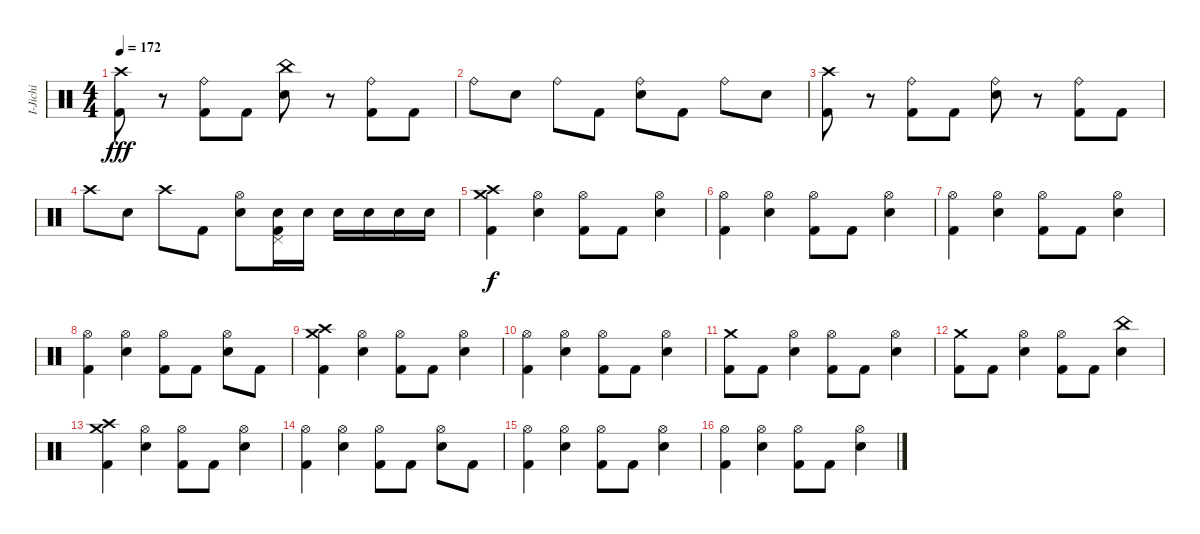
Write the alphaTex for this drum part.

\track ("I-Jichi" "I-Jichi") {instrument percussion}
\staff {score}
\articulation defaults
\ts (4 4)
\tempo 172
\clef neutral
\ks c
("Crash high (hit)" "Kick (hit) 2").8{dy fff} r.8 ("Ride (bell)" "Kick (hit) 2").8 "Kick (hit) 2".8 ("China (hit)" "Electric Snare (hit)").8 r.8 ("Ride (bell)" "Kick (hit) 2").8 "Kick (hit) 2".8 |
"Ride (bell)".8 "Electric Snare (hit)".8 "Ride (bell)".8 "Kick (hit) 2".8 ("Ride (bell)" "Electric Snare (hit)").8 "Kick (hit) 2".8 "Ride (bell)".8 "Electric Snare (hit)".8 |
("Crash high (hit)" "Kick (hit) 2").8 r.8 ("Ride (bell)" "Kick (hit) 2").8 "Kick (hit) 2".8 ("Ride (bell)" "Electric Snare (hit)").8 r.8 ("Ride (bell)" "Kick (hit) 2").8 "Kick (hit) 2".8 |
"Crash high (hit)".8 "Electric Snare (hit)".8 "Crash high (hit)".8 "Kick (hit) 2".8 ("Hi-Hat (open)" "Electric Snare (hit)").8 ("Pedal Hi-Hat (hit)" "Electric Snare (hit)" "Kick (hit) 2").16 "Electric Snare (hit)".16 "Electric Snare (hit)".16 "Electric Snare (hit)".16 "Electric Snare (hit)".16 "Electric Snare (hit)".16 |
("Crash high (hit)" "Crash medium (hit)" "Kick (hit) 2").4{dy f} ("Hi-Hat (open)" "Electric Snare (hit)").4 ("Hi-Hat (open)" "Kick (hit) 2").8 "Kick (hit) 2".8 ("Hi-Hat (open)" "Electric Snare (hit)").4 |
("Hi-Hat (open)" "Kick (hit) 2").4 ("Hi-Hat (open)" "Electric Snare (hit)").4 ("Hi-Hat (open)" "Kick (hit) 2").8 "Kick (hit) 2".8 ("Hi-Hat (open)" "Electric Snare (hit)").4 |
("Hi-Hat (open)" "Kick (hit) 2").4 ("Hi-Hat (open)" "Electric Snare (hit)").4 ("Hi-Hat (open)" "Kick (hit) 2").8 "Kick (hit) 2".8 ("Hi-Hat (open)" "Electric Snare (hit)").4 |
("Hi-Hat (open)" "Kick (hit) 2").4 ("Hi-Hat (open)" "Electric Snare (hit)").4 ("Hi-Hat (open)" "Kick (hit) 2").8 "Kick (hit) 2".8 ("Hi-Hat (open)" "Electric Snare (hit)").8 "Kick (hit) 2".8 |
("Crash high (hit)" "Crash medium (hit)" "Kick (hit) 2").4 ("Hi-Hat (open)" "Electric Snare (hit)").4 ("Hi-Hat (open)" "Kick (hit) 2").8 "Kick (hit) 2".8 ("Hi-Hat (open)" "Electric Snare (hit)").4 |
("Hi-Hat (open)" "Kick (hit) 2").4 ("Hi-Hat (open)" "Electric Snare (hit)").4 ("Hi-Hat (open)" "Kick (hit) 2").8 "Kick (hit) 2".8 ("Hi-Hat (open)" "Electric Snare (hit)").4 |
("Crash medium (hit)" "Kick (hit) 2").8 "Kick (hit) 2".8 ("Hi-Hat (open)" "Electric Snare (hit)").4 ("Hi-Hat (open)" "Kick (hit) 2").8 "Kick (hit) 2".8 ("Hi-Hat (open)" "Electric Snare (hit)").4 |
("Crash medium (hit)" "Kick (hit) 2").8 "Kick (hit) 2".8 ("Hi-Hat (open)" "Electric Snare (hit)").4 ("Hi-Hat (open)" "Kick (hit) 2").8 "Kick (hit) 2".8 ("China (hit)" "Electric Snare (hit)").4 |
("Crash high (hit)" "Crash medium (hit)" "Kick (hit) 2").4 ("Hi-Hat (open)" "Electric Snare (hit)").4 ("Hi-Hat (open)" "Kick (hit) 2").8 "Kick (hit) 2".8 ("Hi-Hat (open)" "Electric Snare (hit)").4 |
("Hi-Hat (open)" "Kick (hit) 2").4 ("Hi-Hat (open)" "Electric Snare (hit)").4 ("Hi-Hat (open)" "Kick (hit) 2").8 "Kick (hit) 2".8 ("Hi-Hat (open)" "Electric Snare (hit)").8 "Kick (hit) 2".8 |
("Hi-Hat (open)" "Kick (hit) 2").4 ("Hi-Hat (open)" "Electric Snare (hit)").4 ("Hi-Hat (open)" "Kick (hit) 2").8 "Kick (hit) 2".8 ("Hi-Hat (open)" "Electric Snare (hit)").4 |
("Hi-Hat (open)" "Kick (hit) 2").4 ("Hi-Hat (open)" "Electric Snare (hit)").4 ("Hi-Hat (open)" "Kick (hit) 2").8 "Kick (hit) 2".8 ("Hi-Hat (open)" "Electric Snare (hit)").4
